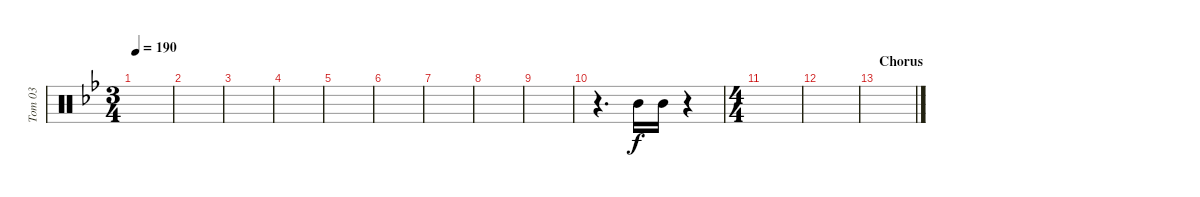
\track ("Tom 03" "Tom 03") {instrument percussion}
\staff {score}
\articulation defaults
\ts (3 4)
\tempo 190
\clef neutral
\ks bb
|
|
|
|
|
|
|
|
|
r.4{d} "Mid Tom (hit)".16 "Mid Tom (hit)".16 r.4 |
\ts (4 4)
|
|
\section ("" "Chorus")
